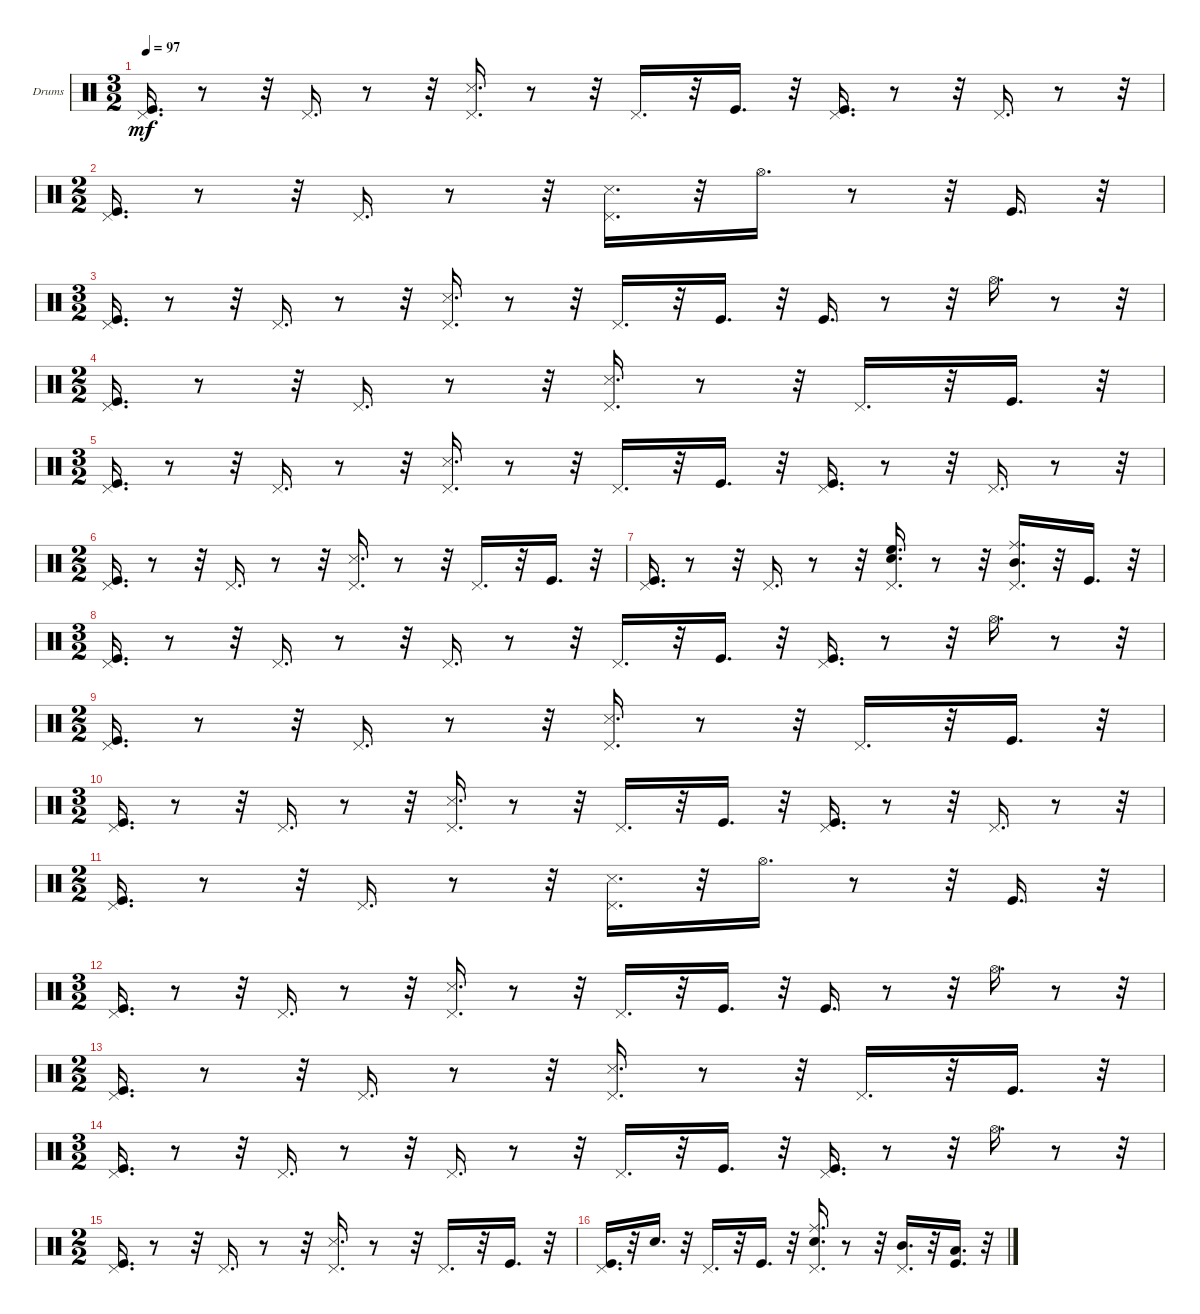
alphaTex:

\bracketExtendMode groupsimilarinstruments
\firstSystemTrackNameOrientation horizontal
\otherSystemsTrackNameOrientation horizontal
\track ("Percusion" "Drums") {instrument percussion}
\staff {score}
\articulation defaults
\ts (3 2)
\tempo 97
\clef neutral
\ks c
("Pedal Hi-Hat (hit)" "Kick (hit)").16{d dy mf} r.8 r.32 "Pedal Hi-Hat (hit)".16{d} r.8 r.32 ("Pedal Hi-Hat (hit)" "Snare (side stick) 3").16{d} r.8 r.32 "Pedal Hi-Hat (hit)".16{d} r.32 "Kick (hit)".16{d} r.32 ("Pedal Hi-Hat (hit)" "Kick (hit)").16{d} r.8 r.32 "Pedal Hi-Hat (hit)".16{d} r.8 r.32 |
\ts (2 2)
("Pedal Hi-Hat (hit)" "Kick (hit)").16{d} r.8 r.32 "Pedal Hi-Hat (hit)".16{d} r.8 r.32 ("Pedal Hi-Hat (hit)" "Snare (side stick) 3").16{d} r.32 "Hi-Hat (open)".16{d} r.8 r.32 "Kick (hit)".16{d} r.32 |
\ts (3 2)
("Pedal Hi-Hat (hit)" "Kick (hit)").16{d} r.8 r.32 "Pedal Hi-Hat (hit)".16{d} r.8 r.32 ("Pedal Hi-Hat (hit)" "Snare (side stick) 3").16{d} r.8 r.32 "Pedal Hi-Hat (hit)".16{d} r.32 "Kick (hit)".16{d} r.32 "Kick (hit)".16{d} r.8 r.32 "Hi-Hat (open)".16{d} r.8 r.32 |
\ts (2 2)
("Pedal Hi-Hat (hit)" "Kick (hit)").16{d} r.8 r.32 "Pedal Hi-Hat (hit)".16{d} r.8 r.32 ("Pedal Hi-Hat (hit)" "Snare (side stick) 3").16{d} r.8 r.32 "Pedal Hi-Hat (hit)".16{d} r.32 "Kick (hit)".16{d} r.32 |
\ts (3 2)
("Pedal Hi-Hat (hit)" "Kick (hit)").16{d} r.8 r.32 "Pedal Hi-Hat (hit)".16{d} r.8 r.32 ("Pedal Hi-Hat (hit)" "Snare (side stick) 3").16{d} r.8 r.32 "Pedal Hi-Hat (hit)".16{d} r.32 "Kick (hit)".16{d} r.32 ("Pedal Hi-Hat (hit)" "Kick (hit)").16{d} r.8 r.32 "Pedal Hi-Hat (hit)".16{d} r.8 r.32 |
\ts (2 2)
("Pedal Hi-Hat (hit)" "Kick (hit)").16{d} r.8 r.32 "Pedal Hi-Hat (hit)".16{d} r.8 r.32 ("Pedal Hi-Hat (hit)" "Snare (side stick) 3").16{d} r.8 r.32 "Pedal Hi-Hat (hit)".16{d} r.32 "Kick (hit)".16{d} r.32 |
("Pedal Hi-Hat (hit)" "Kick (hit)").16{d} r.8 r.32 "Pedal Hi-Hat (hit)".16{d} r.8 r.32 ("Pedal Hi-Hat (hit)" "Snare (hit) 2" "High Floor Tom (hit)").16{d} r.8 r.32 ("Ride (middle)" "Pedal Hi-Hat (hit)" "Mid Tom (hit)").16{d} r.32 "Kick (hit)".16{d} r.32 |
\ts (3 2)
("Pedal Hi-Hat (hit)" "Kick (hit)").16{d} r.8 r.32 "Pedal Hi-Hat (hit)".16{d} r.8 r.32 "Pedal Hi-Hat (hit)".16{d} r.8 r.32 "Pedal Hi-Hat (hit)".16{d} r.32 "Kick (hit)".16{d} r.32 ("Pedal Hi-Hat (hit)" "Kick (hit)").16{d} r.8 r.32 "Hi-Hat (open)".16{d} r.8 r.32 |
\ts (2 2)
("Pedal Hi-Hat (hit)" "Kick (hit)").16{d} r.8 r.32 "Pedal Hi-Hat (hit)".16{d} r.8 r.32 ("Pedal Hi-Hat (hit)" "Snare (side stick) 3").16{d} r.8 r.32 "Pedal Hi-Hat (hit)".16{d} r.32 "Kick (hit)".16{d} r.32 |
\ts (3 2)
("Pedal Hi-Hat (hit)" "Kick (hit)").16{d} r.8 r.32 "Pedal Hi-Hat (hit)".16{d} r.8 r.32 ("Pedal Hi-Hat (hit)" "Snare (side stick) 3").16{d} r.8 r.32 "Pedal Hi-Hat (hit)".16{d} r.32 "Kick (hit)".16{d} r.32 ("Pedal Hi-Hat (hit)" "Kick (hit)").16{d} r.8 r.32 "Pedal Hi-Hat (hit)".16{d} r.8 r.32 |
\ts (2 2)
("Pedal Hi-Hat (hit)" "Kick (hit)").16{d} r.8 r.32 "Pedal Hi-Hat (hit)".16{d} r.8 r.32 ("Pedal Hi-Hat (hit)" "Snare (side stick) 3").16{d} r.32 "Hi-Hat (open)".16{d} r.8 r.32 "Kick (hit)".16{d} r.32 |
\ts (3 2)
("Pedal Hi-Hat (hit)" "Kick (hit)").16{d} r.8 r.32 "Pedal Hi-Hat (hit)".16{d} r.8 r.32 ("Pedal Hi-Hat (hit)" "Snare (side stick) 3").16{d} r.8 r.32 "Pedal Hi-Hat (hit)".16{d} r.32 "Kick (hit)".16{d} r.32 "Kick (hit)".16{d} r.8 r.32 "Hi-Hat (open)".16{d} r.8 r.32 |
\ts (2 2)
("Pedal Hi-Hat (hit)" "Kick (hit)").16{d} r.8 r.32 "Pedal Hi-Hat (hit)".16{d} r.8 r.32 ("Pedal Hi-Hat (hit)" "Snare (side stick) 3").16{d} r.8 r.32 "Pedal Hi-Hat (hit)".16{d} r.32 "Kick (hit)".16{d} r.32 |
\ts (3 2)
("Pedal Hi-Hat (hit)" "Kick (hit)").16{d} r.8 r.32 "Pedal Hi-Hat (hit)".16{d} r.8 r.32 "Pedal Hi-Hat (hit)".16{d} r.8 r.32 "Pedal Hi-Hat (hit)".16{d} r.32 "Kick (hit)".16{d} r.32 ("Pedal Hi-Hat (hit)" "Kick (hit)").16{d} r.8 r.32 "Hi-Hat (open)".16{d} r.8 r.32 |
\ts (2 2)
("Pedal Hi-Hat (hit)" "Kick (hit)").16{d} r.8 r.32 "Pedal Hi-Hat (hit)".16{d} r.8 r.32 ("Pedal Hi-Hat (hit)" "Snare (side stick) 3").16{d} r.8 r.32 "Pedal Hi-Hat (hit)".16{d} r.32 "Kick (hit)".16{d} r.32 |
("Pedal Hi-Hat (hit)" "Kick (hit)").16{d} r.32 "Snare (hit) 2".16{d} r.32 "Pedal Hi-Hat (hit)".16{d} r.32 "Kick (hit)".16{d} r.32 ("Ride (middle)" "Pedal Hi-Hat (hit)" "Snare (hit) 2").16{d} r.8 r.32 ("Pedal Hi-Hat (hit)" "Mid Tom (hit)").16{d} r.32 ("Kick (hit)" "Low Tom (hit)").16{d} r.32
